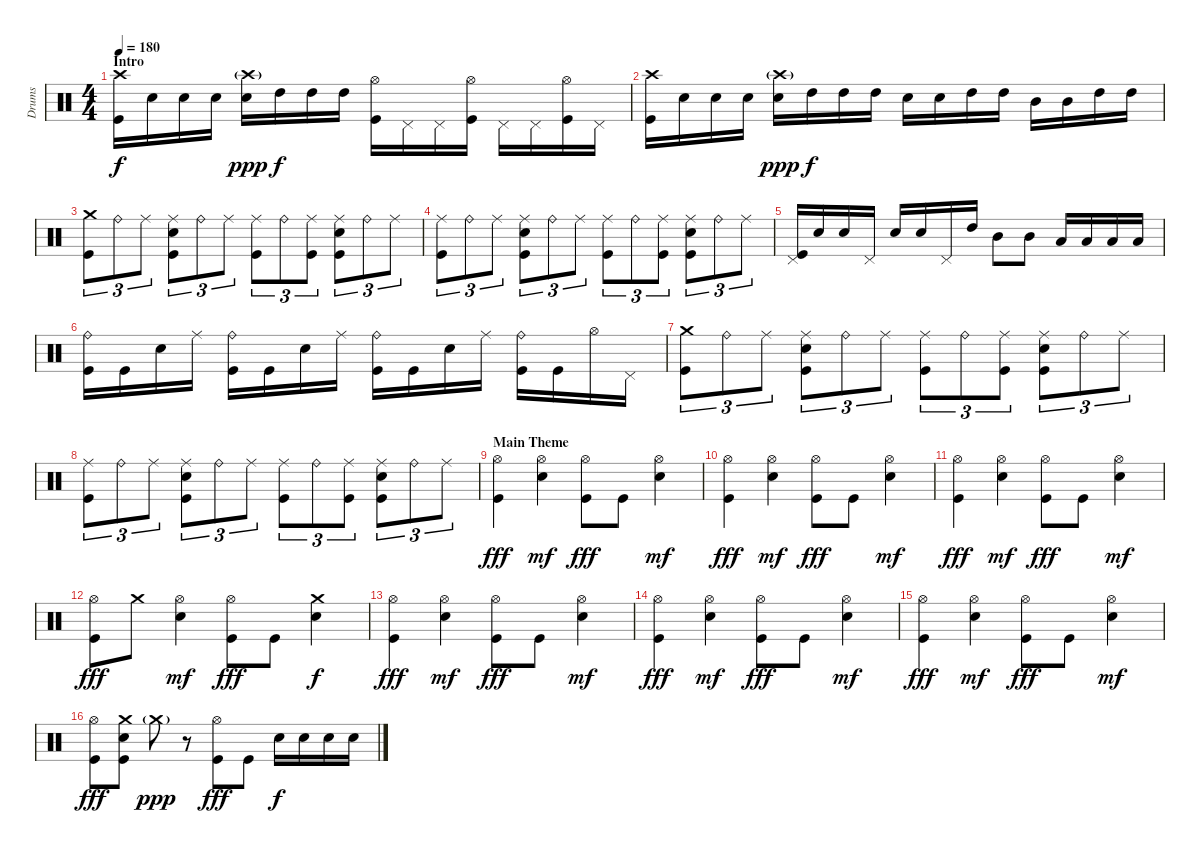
\track ("Drums" "Drums") {instrument percussion}
\staff {score}
\articulation defaults
\ts (4 4)
\section ("" "Intro")
\tempo 180
\clef neutral
\ks c
("Crash high (hit)" "Kick (hit)").16{dy f} "Electric Snare (hit)".16 "Electric Snare (hit)".16 "Electric Snare (hit)".16 ("Crash high (hit)"{g} "Electric Snare (hit)").16{dy ppp} "High Tom (hit)".16{dy f} "High Tom (hit)".16 "High Tom (hit)".16 ("Hi-Hat (open)" "Kick (hit)").16 "Pedal Hi-Hat (hit)".16 "Pedal Hi-Hat (hit)".16 ("Hi-Hat (open)" "Kick (hit)").16 "Pedal Hi-Hat (hit)".16 "Pedal Hi-Hat (hit)".16 ("Hi-Hat (open)" "Kick (hit)").16 "Pedal Hi-Hat (hit)".16 |
("Crash high (hit)" "Kick (hit)").16 "Electric Snare (hit)".16 "Electric Snare (hit)".16 "Electric Snare (hit)".16 ("Crash high (hit)"{g} "Electric Snare (hit)").16{dy ppp} "High Tom (hit)".16{dy f} "High Tom (hit)".16 "High Tom (hit)".16 "Electric Snare (hit)".16 "Electric Snare (hit)".16 "High Tom (hit)".16 "High Tom (hit)".16 "Mid Tom (hit)".16 "Mid Tom (hit)".16 "High Tom (hit)".16 "High Tom (hit)".16 |
("Crash medium (hit)" "Kick (hit)").8{tu (3 2)} "Ride (bell)".8{tu (3 2)} "Ride (middle)".8{tu (3 2)} ("Ride (middle)" "Electric Snare (hit)" "Kick (hit)").8{tu (3 2)} "Ride (bell)".8{tu (3 2)} "Ride (middle)".8{tu (3 2)} ("Ride (middle)" "Kick (hit)").8{tu (3 2)} "Ride (bell)".8{tu (3 2)} ("Ride (middle)" "Kick (hit)").8{tu (3 2)} ("Ride (middle)" "Electric Snare (hit)" "Kick (hit)").8{tu (3 2)} "Ride (bell)".8{tu (3 2)} "Ride (middle)".8{tu (3 2)} |
("Ride (middle)" "Kick (hit)").8{tu (3 2)} "Ride (bell)".8{tu (3 2)} "Ride (middle)".8{tu (3 2)} ("Ride (middle)" "Electric Snare (hit)" "Kick (hit)").8{tu (3 2)} "Ride (bell)".8{tu (3 2)} "Ride (middle)".8{tu (3 2)} ("Ride (middle)" "Kick (hit)").8{tu (3 2)} "Ride (bell)".8{tu (3 2)} ("Ride (middle)" "Kick (hit)").8{tu (3 2)} ("Ride (middle)" "Electric Snare (hit)" "Kick (hit)").8{tu (3 2)} "Ride (bell)".8{tu (3 2)} "Ride (middle)".8{tu (3 2)} |
("Pedal Hi-Hat (hit)" "Kick (hit)").16 "Electric Snare (hit)".16 "Electric Snare (hit)".16 "Pedal Hi-Hat (hit)".16 "Electric Snare (hit)".16 "Electric Snare (hit)".16 "Pedal Hi-Hat (hit)".16 "High Tom (hit)".16 "Mid Tom (hit)".8 "Mid Tom (hit)".8 "Low Tom (hit)".16 "Low Tom (hit)".16 "Low Tom (hit)".16 "Low Tom (hit)".16 |
("Ride (bell)" "Kick (hit)").16 "Kick (hit)".16 "Electric Snare (hit)".16 "Ride (middle)".16 ("Ride (bell)" "Kick (hit)").16 "Kick (hit)".16 "Electric Snare (hit)".16 "Ride (middle)".16 ("Ride (bell)" "Kick (hit)").16 "Kick (hit)".16 "Electric Snare (hit)".16 "Ride (middle)".16 ("Ride (bell)" "Kick (hit)").16 "Kick (hit)".16 "Hi-Hat (open)".16 "Pedal Hi-Hat (hit)".16 |
("Crash medium (hit)" "Kick (hit)").8{tu (3 2)} "Ride (bell)".8{tu (3 2)} "Ride (middle)".8{tu (3 2)} ("Ride (middle)" "Electric Snare (hit)" "Kick (hit)").8{tu (3 2)} "Ride (bell)".8{tu (3 2)} "Ride (middle)".8{tu (3 2)} ("Ride (middle)" "Kick (hit)").8{tu (3 2)} "Ride (bell)".8{tu (3 2)} ("Ride (middle)" "Kick (hit)").8{tu (3 2)} ("Ride (middle)" "Electric Snare (hit)" "Kick (hit)").8{tu (3 2)} "Ride (bell)".8{tu (3 2)} "Ride (middle)".8{tu (3 2)} |
("Ride (middle)" "Kick (hit)").8{tu (3 2)} "Ride (bell)".8{tu (3 2)} "Ride (middle)".8{tu (3 2)} ("Ride (middle)" "Electric Snare (hit)" "Kick (hit)").8{tu (3 2)} "Ride (bell)".8{tu (3 2)} "Ride (middle)".8{tu (3 2)} ("Ride (middle)" "Kick (hit)").8{tu (3 2)} "Ride (bell)".8{tu (3 2)} ("Ride (middle)" "Kick (hit)").8{tu (3 2)} ("Ride (middle)" "Electric Snare (hit)" "Kick (hit)").8{tu (3 2)} "Ride (bell)".8{tu (3 2)} "Ride (middle)".8{tu (3 2)} |
\section ("" "Main Theme")
("Hi-Hat (open)" "Kick (hit)").4{dy fff} ("Hi-Hat (open)" "Electric Snare (hit)").4{dy mf} ("Hi-Hat (open)" "Kick (hit)").8{dy fff} "Kick (hit)".8 ("Hi-Hat (open)" "Electric Snare (hit)").4{dy mf} |
("Hi-Hat (open)" "Kick (hit)").4{dy fff} ("Hi-Hat (open)" "Electric Snare (hit)").4{dy mf} ("Hi-Hat (open)" "Kick (hit)").8{dy fff} "Kick (hit)".8 ("Hi-Hat (open)" "Electric Snare (hit)").4{dy mf} |
("Hi-Hat (open)" "Kick (hit)").4{dy fff} ("Hi-Hat (open)" "Electric Snare (hit)").4{dy mf} ("Hi-Hat (open)" "Kick (hit)").8{dy fff} "Kick (hit)".8 ("Hi-Hat (open)" "Electric Snare (hit)").4{dy mf} |
("Hi-Hat (open)" "Kick (hit)").8{dy fff} "Crash medium (hit)".8 ("Hi-Hat (open)" "Electric Snare (hit)").4{dy mf} ("Hi-Hat (open)" "Kick (hit)").8{dy fff} "Kick (hit)".8 ("Crash medium (hit)" "Electric Snare (hit)").4{dy f} |
("Hi-Hat (open)" "Kick (hit)").4{dy fff} ("Hi-Hat (open)" "Electric Snare (hit)").4{dy mf} ("Hi-Hat (open)" "Kick (hit)").8{dy fff} "Kick (hit)".8 ("Hi-Hat (open)" "Electric Snare (hit)").4{dy mf} |
("Hi-Hat (open)" "Kick (hit)").4{dy fff} ("Hi-Hat (open)" "Electric Snare (hit)").4{dy mf} ("Hi-Hat (open)" "Kick (hit)").8{dy fff} "Kick (hit)".8 ("Hi-Hat (open)" "Electric Snare (hit)").4{dy mf} |
("Hi-Hat (open)" "Kick (hit)").4{dy fff} ("Hi-Hat (open)" "Electric Snare (hit)").4{dy mf} ("Hi-Hat (open)" "Kick (hit)").8{dy fff} "Kick (hit)".8 ("Hi-Hat (open)" "Electric Snare (hit)").4{dy mf} |
("Hi-Hat (open)" "Kick (hit)").8{dy fff} ("Crash medium (hit)" "Electric Snare (hit)" "Kick (hit)").8 "Crash medium (hit)"{g}.8{dy ppp} r.8 ("Hi-Hat (open)" "Kick (hit)").8{dy fff} "Kick (hit)".8 "Electric Snare (hit)".16{dy f} "Electric Snare (hit)".16 "Electric Snare (hit)".16 "Electric Snare (hit)".16
